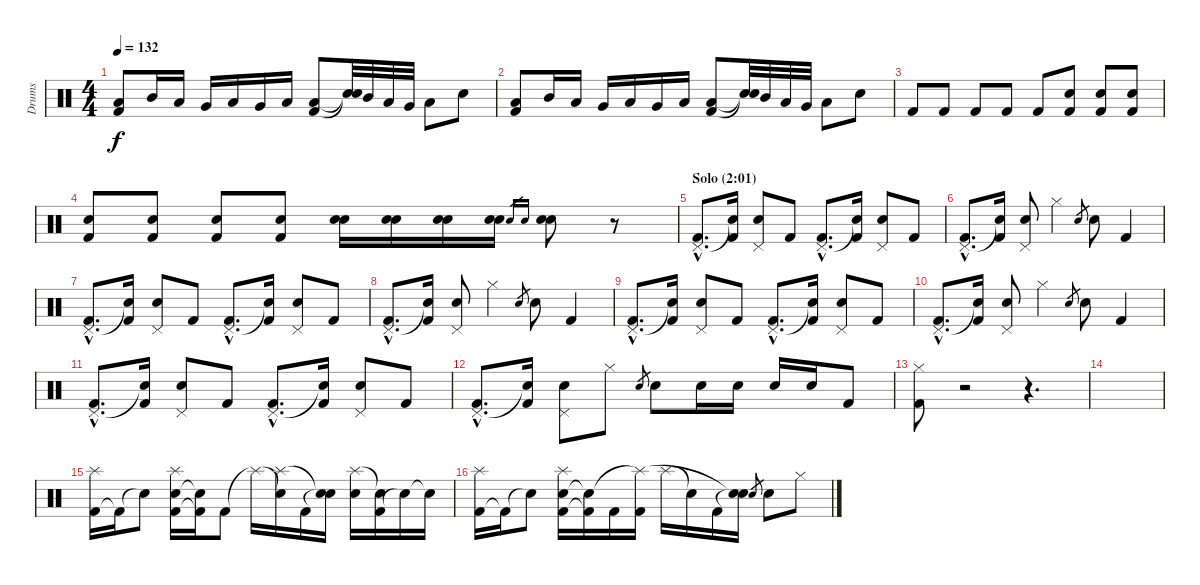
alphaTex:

\track ("Drums" "Drums") {instrument percussion}
\staff {score}
\articulation defaults
\ts (4 4)
\tempo 132
\clef neutral
\ks aminor
("Kick (hit) 2" "Low Floor Tom (hit)").8{dy f} "Mid Tom (hit)".16 "Low Tom (hit)".16 "Very Low Tom (hit)".16 "Low Floor Tom (hit)".16 "Very Low Tom (hit)".16 "Low Floor Tom (hit)".16 ("Kick (hit) 2" "Low Floor Tom (hit)").8 ("Snare (hit)"{t} "Snare (hit)"{t}).32 "Mid Tom (hit)".32 "Low Tom (hit)".32 "Very Low Tom (hit)".32 "Low Floor Tom (hit)".8 "Electric Snare (hit)".8 |
("Kick (hit) 2" "Low Floor Tom (hit)").8 "Mid Tom (hit)".16 "Low Tom (hit)".16 "Very Low Tom (hit)".16 "Low Floor Tom (hit)".16 "Very Low Tom (hit)".16 "Low Floor Tom (hit)".16 ("Kick (hit) 2" "Low Floor Tom (hit)").8 ("Snare (hit)"{t} "Snare (hit)"{t}).32 "Mid Tom (hit)".32 "Low Tom (hit)".32 "Very Low Tom (hit)".32 "Low Floor Tom (hit)".8 "Electric Snare (hit)".8 |
"Kick (hit) 2".8 "Kick (hit) 2".8 "Kick (hit) 2".8 "Kick (hit) 2".8 "Kick (hit) 2".8 ("Kick (hit) 2" "Electric Snare (hit)").8 ("Kick (hit) 2" "Electric Snare (hit)").8 ("Kick (hit) 2" "Electric Snare (hit)").8 |
("Kick (hit) 2" "Electric Snare (hit)").8 ("Kick (hit) 2" "Electric Snare (hit)").8 ("Kick (hit) 2" "Electric Snare (hit)").8 ("Kick (hit) 2" "Electric Snare (hit)").8 ("Electric Snare (hit)" "Electric Snare (hit)").16 ("Electric Snare (hit)" "Electric Snare (hit)").16 ("Electric Snare (hit)" "Electric Snare (hit)").16 ("Electric Snare (hit)" "Electric Snare (hit)").16 "Electric Snare (hit)".16{gr} "Electric Snare (hit)".16{gr} ("Electric Snare (hit)" "Electric Snare (hit)").8 r.8 |
\section ("" "Solo (2:01)")
("Kick (hit) 2"{hac} "Pedal Hi-Hat (hit)"{hac}).8{d} ("Kick (hit) 2" "Snare (hit)"{t}).16 ("Electric Snare (hit)" "Pedal Hi-Hat (hit)").8 "Kick (hit) 2".8 ("Kick (hit) 2"{hac} "Pedal Hi-Hat (hit)"{hac}).8{d} ("Kick (hit) 2" "Snare (hit)"{t}).16 ("Electric Snare (hit)" "Pedal Hi-Hat (hit)").8 "Kick (hit) 2".8 |
("Kick (hit) 2"{hac} "Pedal Hi-Hat (hit)"{hac}).8{d} ("Kick (hit) 2" "Snare (hit)"{t}).16 ("Electric Snare (hit)" "Pedal Hi-Hat (hit)").8 "Hi-Hat (closed)".4 "Electric Snare (hit)".8{gr} "Electric Snare (hit)".8 "Kick (hit) 2".4 |
("Kick (hit) 2"{hac} "Pedal Hi-Hat (hit)"{hac}).8{d} ("Kick (hit) 2" "Snare (hit)"{t}).16 ("Electric Snare (hit)" "Pedal Hi-Hat (hit)").8 "Kick (hit) 2".8 ("Kick (hit) 2"{hac} "Pedal Hi-Hat (hit)"{hac}).8{d} ("Kick (hit) 2" "Snare (hit)"{t}).16 ("Electric Snare (hit)" "Pedal Hi-Hat (hit)").8 "Kick (hit) 2".8 |
("Kick (hit) 2"{hac} "Pedal Hi-Hat (hit)"{hac}).8{d} ("Kick (hit) 2" "Snare (hit)"{t}).16 ("Electric Snare (hit)" "Pedal Hi-Hat (hit)").8 "Hi-Hat (closed)".4 "Electric Snare (hit)".8{gr} "Electric Snare (hit)".8 "Kick (hit) 2".4 |
("Kick (hit) 2"{hac} "Pedal Hi-Hat (hit)"{hac}).8{d} ("Kick (hit) 2" "Snare (hit)"{t}).16 ("Electric Snare (hit)" "Pedal Hi-Hat (hit)").8 "Kick (hit) 2".8 ("Kick (hit) 2"{hac} "Pedal Hi-Hat (hit)"{hac}).8{d} ("Kick (hit) 2" "Snare (hit)"{t}).16 ("Electric Snare (hit)" "Pedal Hi-Hat (hit)").8 "Kick (hit) 2".8 |
("Kick (hit) 2"{hac} "Pedal Hi-Hat (hit)"{hac}).8{d} ("Kick (hit) 2" "Snare (hit)"{t}).16 ("Electric Snare (hit)" "Pedal Hi-Hat (hit)").8 "Hi-Hat (closed)".4 "Electric Snare (hit)".8{gr} "Electric Snare (hit)".8 "Kick (hit) 2".4 |
("Kick (hit) 2"{hac} "Pedal Hi-Hat (hit)"{hac}).8{d} ("Kick (hit) 2" "Snare (hit)"{t}).16 ("Electric Snare (hit)" "Pedal Hi-Hat (hit)").8 "Kick (hit) 2".8 ("Kick (hit) 2"{hac} "Pedal Hi-Hat (hit)"{hac}).8{d} ("Kick (hit) 2" "Snare (hit)"{t}).16 ("Electric Snare (hit)" "Pedal Hi-Hat (hit)").8 "Kick (hit) 2".8 |
("Kick (hit) 2"{hac} "Pedal Hi-Hat (hit)"{hac}).8{d} ("Kick (hit) 2" "Snare (hit)"{t}).16 ("Electric Snare (hit)" "Pedal Hi-Hat (hit)").8 "Hi-Hat (closed)".8 "Electric Snare (hit)".8{gr} "Electric Snare (hit)".8 "Electric Snare (hit)".16 "Electric Snare (hit)".16 "Electric Snare (hit)".16 "Electric Snare (hit)".16 "Kick (hit) 2".8 |
("Kick (hit) 2" "Hi-Hat (closed)").8 r.2 r.4{d} |
|
("Kick (hit) 2" "Splash (hit)").16 "Kick (hit) 2"{t}.16 "Snare (hit)"{t}.8 ("Kick (hit) 2" "Electric Snare (hit)" "Splash (hit)").16 ("Kick (hit) 2"{t} "Snare (hit)"{t}).16 "Kick (hit) 2".8 "Splash (hit)"{t}.16 ("Snare (hit)"{t} "Splash (hit)").16 "Kick (hit) 2".16 ("Snare (hit)"{t} "Snare (hit)"{t}).16 ("Electric Snare (hit)" "Splash (hit)").16 ("Kick (hit) 2" "Snare (hit)"{t}).16 "Snare (hit)"{t}.16 "Snare (hit)"{t}.16 |
("Kick (hit) 2" "Splash (hit)").16 "Kick (hit) 2"{t}.16 "Snare (hit)"{t}.8 ("Kick (hit) 2" "Electric Snare (hit)" "Splash (hit)").16 ("Kick (hit) 2"{t} "Snare (hit)"{t}).16 "Kick (hit) 2".16 ("Kick (hit) 2" "Splash (hit)"{t}).16 "Splash (hit)".16 "Snare (hit)"{t}.16 "Kick (hit) 2".16 ("Snare (hit)"{t} "Snare (hit)"{t}).16 "Electric Snare (hit)".8{gr} "Electric Snare (hit)".8 "Hi-Hat (closed)".8
